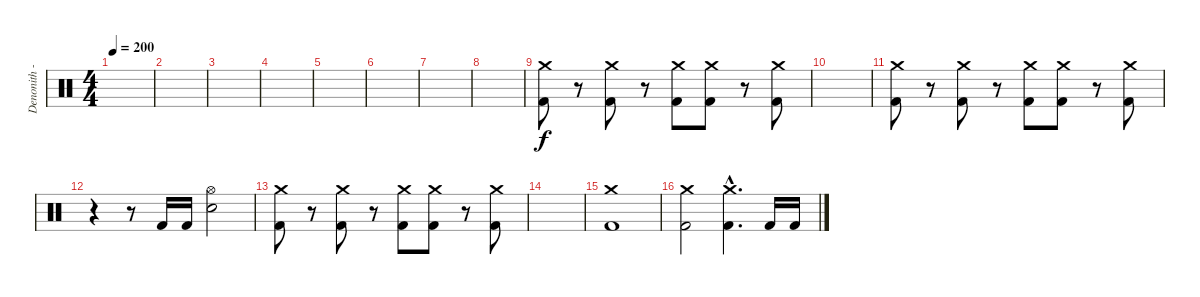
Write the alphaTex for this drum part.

\track ("Denonith - Spyros" "Denonith -") {instrument percussion}
\staff {score}
\articulation defaults
\ts (4 4)
\tempo 200
\clef neutral
\ks c
|
|
|
|
|
|
|
|
("Crash medium (hit)" "Kick (hit) 2").8 r.8 ("Crash medium (hit)" "Kick (hit) 2").8 r.8 ("Crash medium (hit)" "Kick (hit) 2").8 ("Crash medium (hit)" "Kick (hit) 2").8 r.8 ("Crash medium (hit)" "Kick (hit) 2").8 |
|
("Crash medium (hit)" "Kick (hit) 2").8 r.8 ("Crash medium (hit)" "Kick (hit) 2").8 r.8 ("Crash medium (hit)" "Kick (hit) 2").8 ("Crash medium (hit)" "Kick (hit) 2").8 r.8 ("Crash medium (hit)" "Kick (hit) 2").8 |
r.4 r.8 "Kick (hit) 2".16 "Kick (hit) 2".16 ("Hi-Hat (open)" "Electric Snare (hit)").2 |
("Crash medium (hit)" "Kick (hit) 2").8 r.8 ("Crash medium (hit)" "Kick (hit) 2").8 r.8 ("Crash medium (hit)" "Kick (hit) 2").8 ("Crash medium (hit)" "Kick (hit) 2").8 r.8 ("Crash medium (hit)" "Kick (hit) 2").8 |
|
("Crash medium (hit)" "Kick (hit) 2").1 |
("Crash medium (hit)" "Kick (hit) 2").2 ("Crash medium (hit)"{hac} "Kick (hit) 2"{hac}).4{d} "Kick (hit) 2".16 "Kick (hit) 2".16
